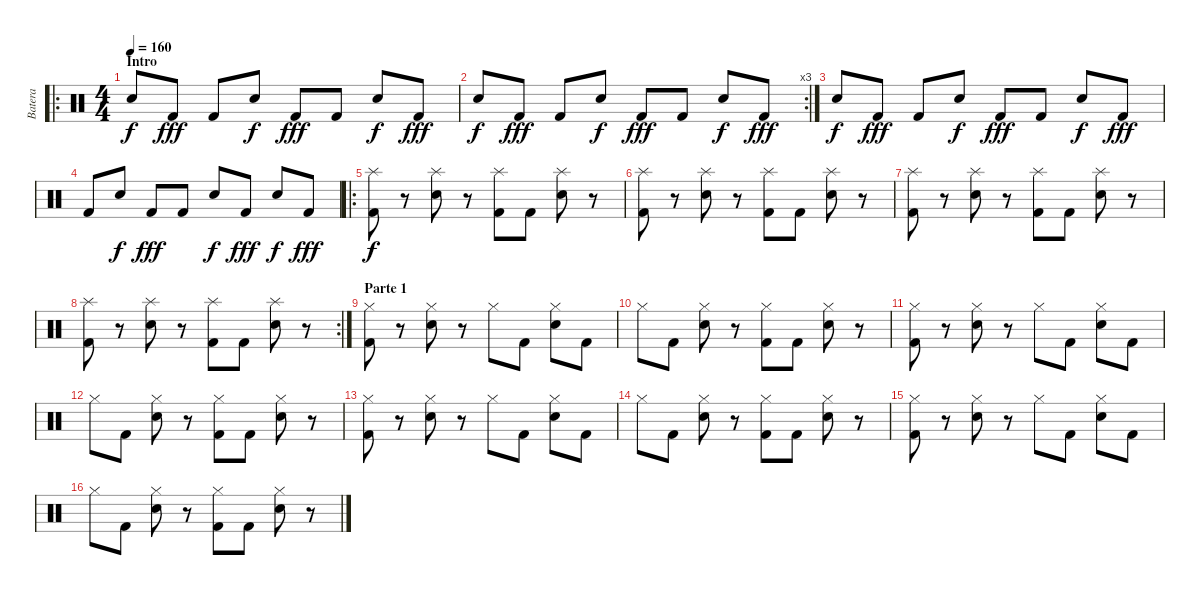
\track ("Batera" "Batera") {instrument percussion}
\staff {score}
\articulation defaults
\ro
\ts (4 4)
\section ("" "Intro")
\tempo 160
\clef neutral
\ks c "Electric Snare (hit)".8{dy f} "Kick (hit) 2".8{dy fff} "Kick (hit) 2".8 "Electric Snare (hit)".8{dy f} "Kick (hit) 2".8{dy fff} "Kick (hit) 2".8 "Electric Snare (hit)".8{dy f} "Kick (hit) 2".8{dy fff}
|
\rc 3 "Electric Snare (hit)".8{dy f} "Kick (hit) 2".8{dy fff} "Kick (hit) 2".8 "Electric Snare (hit)".8{dy f} "Kick (hit) 2".8{dy fff} "Kick (hit) 2".8 "Electric Snare (hit)".8{dy f} "Kick (hit) 2".8{dy fff}
|
"Electric Snare (hit)".8{dy f} "Kick (hit) 2".8{dy fff} "Kick (hit) 2".8 "Electric Snare (hit)".8{dy f} "Kick (hit) 2".8{dy fff} "Kick (hit) 2".8 "Electric Snare (hit)".8{dy f} "Kick (hit) 2".8{dy fff} |
"Kick (hit) 2".8 "Electric Snare (hit)".8{dy f} "Kick (hit) 2".8{dy fff} "Kick (hit) 2".8 "Electric Snare (hit)".8{dy f} "Kick (hit) 2".8{dy fff} "Electric Snare (hit)".8{dy f} "Kick (hit) 2".8{dy fff} |
\ro
("Splash (hit)" "Kick (hit) 2").8{dy f} r.8 ("Splash (hit)" "Electric Snare (hit)").8 r.8 ("Splash (hit)" "Kick (hit) 2").8 "Kick (hit) 2".8 ("Splash (hit)" "Electric Snare (hit)").8 r.8 |
("Splash (hit)" "Kick (hit) 2").8 r.8 ("Splash (hit)" "Electric Snare (hit)").8 r.8 ("Splash (hit)" "Kick (hit) 2").8 "Kick (hit) 2".8 ("Splash (hit)" "Electric Snare (hit)").8 r.8 |
("Splash (hit)" "Kick (hit) 2").8 r.8 ("Splash (hit)" "Electric Snare (hit)").8 r.8 ("Splash (hit)" "Kick (hit) 2").8 "Kick (hit) 2".8 ("Splash (hit)" "Electric Snare (hit)").8 r.8 |
\rc 2
("Splash (hit)" "Kick (hit) 2").8 r.8 ("Splash (hit)" "Electric Snare (hit)").8 r.8 ("Splash (hit)" "Kick (hit) 2").8 "Kick (hit) 2".8 ("Splash (hit)" "Electric Snare (hit)").8 r.8 |
\section ("" "Parte 1")
("Hi-Hat (closed)" "Kick (hit) 2").8 r.8 ("Hi-Hat (closed)" "Electric Snare (hit)").8 r.8 "Hi-Hat (closed)".8 "Kick (hit) 2".8 ("Hi-Hat (closed)" "Electric Snare (hit)").8 "Kick (hit) 2".8 |
"Hi-Hat (closed)".8 "Kick (hit) 2".8 ("Hi-Hat (closed)" "Electric Snare (hit)").8 r.8 ("Hi-Hat (closed)" "Kick (hit) 2").8 "Kick (hit) 2".8 ("Hi-Hat (closed)" "Electric Snare (hit)").8 r.8 |
("Hi-Hat (closed)" "Kick (hit) 2").8 r.8 ("Hi-Hat (closed)" "Electric Snare (hit)").8 r.8 "Hi-Hat (closed)".8 "Kick (hit) 2".8 ("Hi-Hat (closed)" "Electric Snare (hit)").8 "Kick (hit) 2".8 |
"Hi-Hat (closed)".8 "Kick (hit) 2".8 ("Hi-Hat (closed)" "Electric Snare (hit)").8 r.8 ("Hi-Hat (closed)" "Kick (hit) 2").8 "Kick (hit) 2".8 ("Hi-Hat (closed)" "Electric Snare (hit)").8 r.8 |
("Hi-Hat (closed)" "Kick (hit) 2").8 r.8 ("Hi-Hat (closed)" "Electric Snare (hit)").8 r.8 "Hi-Hat (closed)".8 "Kick (hit) 2".8 ("Hi-Hat (closed)" "Electric Snare (hit)").8 "Kick (hit) 2".8 |
"Hi-Hat (closed)".8 "Kick (hit) 2".8 ("Hi-Hat (closed)" "Electric Snare (hit)").8 r.8 ("Hi-Hat (closed)" "Kick (hit) 2").8 "Kick (hit) 2".8 ("Hi-Hat (closed)" "Electric Snare (hit)").8 r.8 |
("Hi-Hat (closed)" "Kick (hit) 2").8 r.8 ("Hi-Hat (closed)" "Electric Snare (hit)").8 r.8 "Hi-Hat (closed)".8 "Kick (hit) 2".8 ("Hi-Hat (closed)" "Electric Snare (hit)").8 "Kick (hit) 2".8 |
"Hi-Hat (closed)".8 "Kick (hit) 2".8 ("Hi-Hat (closed)" "Electric Snare (hit)").8 r.8 ("Hi-Hat (closed)" "Kick (hit) 2").8 "Kick (hit) 2".8 ("Hi-Hat (closed)" "Electric Snare (hit)").8 r.8
